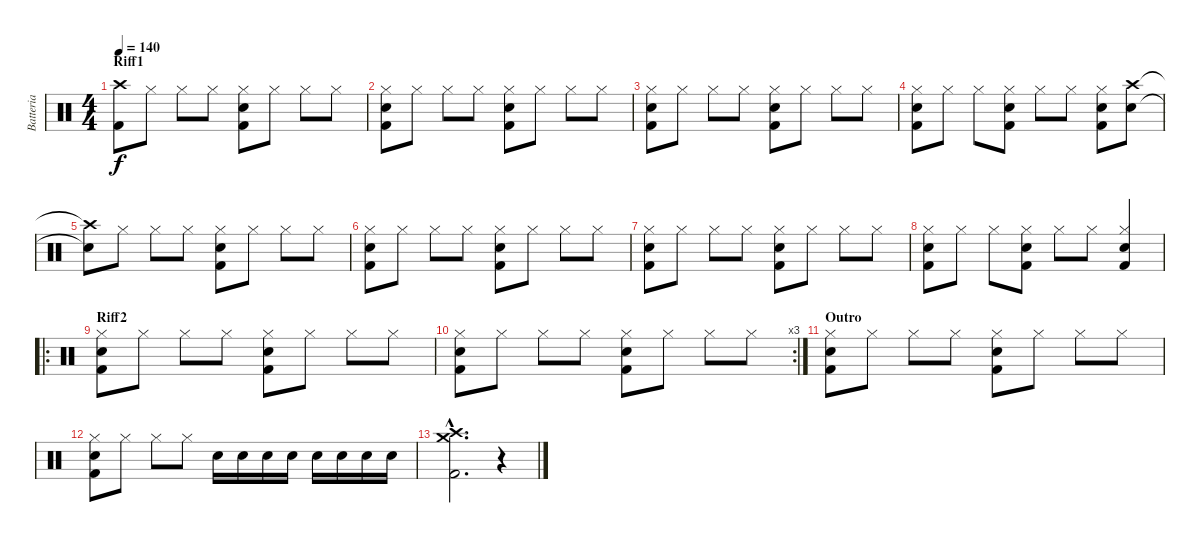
\track ("Batteria" "Batteria") {instrument percussion}
\staff {score}
\articulation defaults
\ts (4 4)
\section ("" "Riff1")
\tempo 140
\clef neutral
\ks c
("Crash high (hit)" "Kick (hit) 2").8{dy f} "Hi-Hat (closed)".8 "Hi-Hat (closed)".8 "Hi-Hat (closed)".8 ("Kick (hit) 2" "Hi-Hat (closed)" "Snare (hit) 2").8 "Hi-Hat (closed)".8 "Hi-Hat (closed)".8 "Hi-Hat (closed)".8 |
("Kick (hit) 2" "Hi-Hat (closed)" "Snare (hit) 2").8 "Hi-Hat (closed)".8 "Hi-Hat (closed)".8 "Hi-Hat (closed)".8 ("Kick (hit) 2" "Hi-Hat (closed)" "Snare (hit) 2").8 "Hi-Hat (closed)".8 "Hi-Hat (closed)".8 "Hi-Hat (closed)".8 |
("Kick (hit) 2" "Hi-Hat (closed)" "Snare (hit) 2").8 "Hi-Hat (closed)".8 "Hi-Hat (closed)".8 "Hi-Hat (closed)".8 ("Kick (hit) 2" "Hi-Hat (closed)" "Snare (hit) 2").8 "Hi-Hat (closed)".8 "Hi-Hat (closed)".8 "Hi-Hat (closed)".8 |
("Hi-Hat (closed)" "Snare (hit) 2" "Kick (hit) 2").8 "Hi-Hat (closed)".8 "Hi-Hat (closed)".8 ("Hi-Hat (closed)" "Snare (hit) 2" "Kick (hit) 2").8 "Hi-Hat (closed)".8 "Hi-Hat (closed)".8 ("Hi-Hat (closed)" "Snare (hit) 2" "Kick (hit) 2").8 ("Crash high (hit)" "Snare (hit) 2").8 |
("Crash high (hit)"{t} "Snare (hit) 2"{t}).8 "Hi-Hat (closed)".8 "Hi-Hat (closed)".8 "Hi-Hat (closed)".8 ("Kick (hit) 2" "Hi-Hat (closed)" "Snare (hit) 2").8 "Hi-Hat (closed)".8 "Hi-Hat (closed)".8 "Hi-Hat (closed)".8 |
("Hi-Hat (closed)" "Snare (hit) 2" "Kick (hit) 2").8 "Hi-Hat (closed)".8 "Hi-Hat (closed)".8 "Hi-Hat (closed)".8 ("Kick (hit) 2" "Snare (hit) 2" "Hi-Hat (closed)").8 "Hi-Hat (closed)".8 "Hi-Hat (closed)".8 "Hi-Hat (closed)".8 |
("Hi-Hat (closed)" "Snare (hit) 2" "Kick (hit) 2").8 "Hi-Hat (closed)".8 "Hi-Hat (closed)".8 "Hi-Hat (closed)".8 ("Kick (hit) 2" "Snare (hit) 2" "Hi-Hat (closed)").8 "Hi-Hat (closed)".8 "Hi-Hat (closed)".8 "Hi-Hat (closed)".8 |
("Hi-Hat (closed)" "Snare (hit) 2" "Kick (hit) 2").8 "Hi-Hat (closed)".8 "Hi-Hat (closed)".8 ("Hi-Hat (closed)" "Snare (hit) 2" "Kick (hit) 2").8 "Hi-Hat (closed)".8 "Hi-Hat (closed)".8 ("Hi-Hat (closed)" "Kick (hit) 2" "Snare (hit) 2").4 |
\ro
\section ("" "Riff2")
("Hi-Hat (closed)" "Snare (hit) 2" "Kick (hit) 2").8 "Hi-Hat (closed)".8 "Hi-Hat (closed)".8 "Hi-Hat (closed)".8 ("Kick (hit) 2" "Snare (hit) 2" "Hi-Hat (closed)").8 "Hi-Hat (closed)".8 "Hi-Hat (closed)".8 "Hi-Hat (closed)".8 |
\rc 3
("Hi-Hat (closed)" "Snare (hit) 2" "Kick (hit) 2").8 "Hi-Hat (closed)".8 "Hi-Hat (closed)".8 "Hi-Hat (closed)".8 ("Kick (hit) 2" "Snare (hit) 2" "Hi-Hat (closed)").8 "Hi-Hat (closed)".8 "Hi-Hat (closed)".8 "Hi-Hat (closed)".8 |
\section ("" "Outro")
("Hi-Hat (closed)" "Snare (hit) 2" "Kick (hit) 2").8 "Hi-Hat (closed)".8 "Hi-Hat (closed)".8 "Hi-Hat (closed)".8 ("Kick (hit) 2" "Snare (hit) 2" "Hi-Hat (closed)").8 "Hi-Hat (closed)".8 "Hi-Hat (closed)".8 "Hi-Hat (closed)".8 |
("Hi-Hat (closed)" "Snare (hit) 2" "Kick (hit) 2").8 "Hi-Hat (closed)".8 "Hi-Hat (closed)".8 "Hi-Hat (closed)".8 "Snare (hit) 2".16 "Snare (hit) 2".16 "Snare (hit) 2".16 "Snare (hit) 2".16 "Snare (hit) 2".16 "Snare (hit) 2".16 "Snare (hit) 2".16 "Snare (hit) 2".16 |
("Crash medium (hit)"{hac} "Crash high (hit)"{hac} "Kick (hit) 2"{hac}).2{d} r.4
